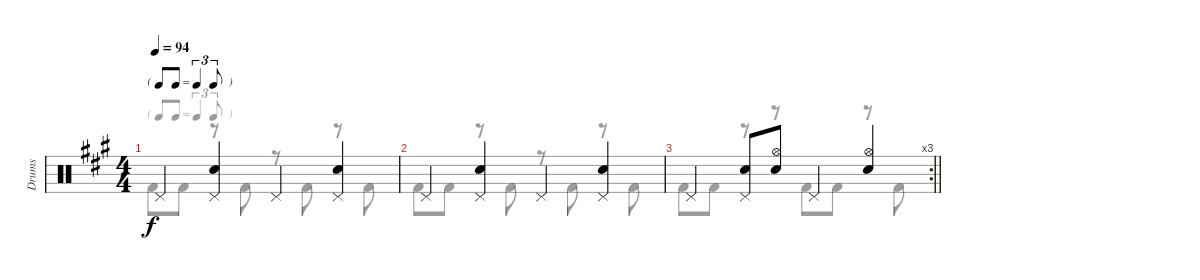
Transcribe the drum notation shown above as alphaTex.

\track ("Drums" "Drums") {instrument percussion}
\staff {score}
\articulation defaults
\voice
\ts (4 4)
\tf triplet8th
\tempo 94
\clef neutral
\ks f#minor "Pedal Hi-Hat (hit)".4{dy f}
("Pedal Hi-Hat (hit)" "Snare (hit) 2").4 "Pedal Hi-Hat (hit)".4 ("Pedal Hi-Hat (hit)" "Snare (hit) 2").4 |
"Pedal Hi-Hat (hit)".4 ("Pedal Hi-Hat (hit)" "Snare (hit) 2").4 "Pedal Hi-Hat (hit)".4 ("Pedal Hi-Hat (hit)" "Snare (hit) 2").4 |
\rc 3
\barLineRight lightlight "Pedal Hi-Hat (hit)".4
("Pedal Hi-Hat (hit)" "Snare (hit) 2").8 ("Hi-Hat (open)" "Snare (hit) 2").8 "Pedal Hi-Hat (hit)".4 ("Hi-Hat (open)" "Snare (hit) 2").4
\voice
\clef neutral
\ottava regular
\simile none
\ks f#minor "Kick (hit) 2".8{dy f} "Kick (hit) 2".8
r.8 "Kick (hit) 2".8 r.8 "Kick (hit) 2".8 r.8 "Kick (hit) 2".8 |
"Kick (hit) 2".8 "Kick (hit) 2".8 r.8 "Kick (hit) 2".8 r.8 "Kick (hit) 2".8 r.8 "Kick (hit) 2".8 |
\barLineRight lightlight "Kick (hit) 2".8 "Kick (hit) 2".8
r.8 r.8 "Kick (hit) 2".8 "Kick (hit) 2".8 r.8 "Kick (hit) 2".8
